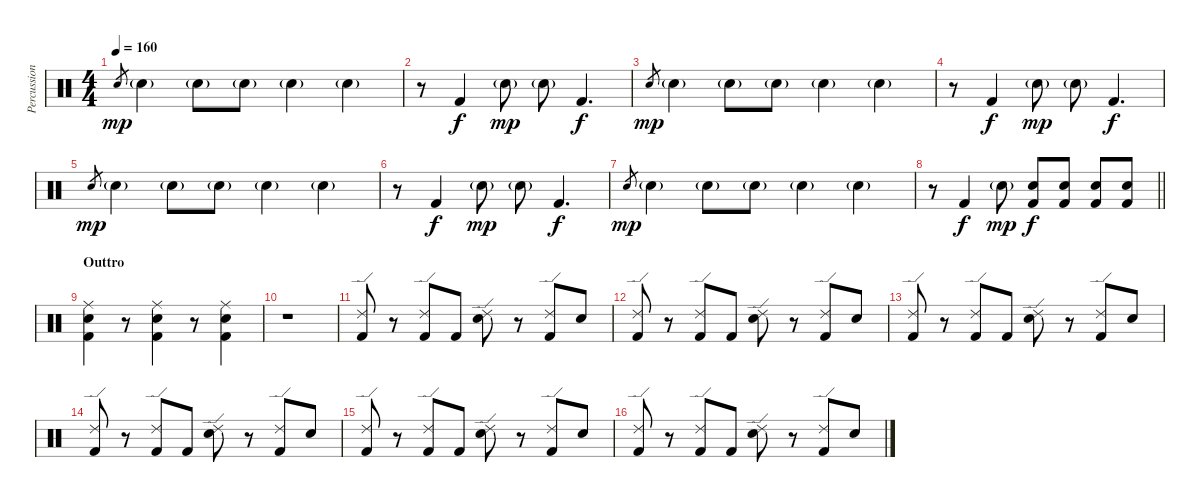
\track ("Percussion" "Percussion") {instrument percussion}
\staff {score}
\articulation defaults
\ts (4 4)
\tempo 160
\clef neutral
\ks c "Snare (hit) 2".8{gr dy mp} "Snare (hit) 2"{g}.4 "Snare (hit) 2"{g}.8 "Snare (hit) 2"{g}.8 "Snare (hit) 2"{g}.4 "Snare (hit) 2"{g}.4
|
r.8 "Kick (hit) 2".4{dy f} "Snare (hit) 2"{g}.8{dy mp} "Snare (hit) 2"{g}.8 "Kick (hit) 2".4{d dy f} |
"Snare (hit) 2".8{gr dy mp} "Snare (hit) 2"{g}.4 "Snare (hit) 2"{g}.8 "Snare (hit) 2"{g}.8 "Snare (hit) 2"{g}.4 "Snare (hit) 2"{g}.4 |
r.8 "Kick (hit) 2".4{dy f} "Snare (hit) 2"{g}.8{dy mp} "Snare (hit) 2"{g}.8 "Kick (hit) 2".4{d dy f} |
"Snare (hit) 2".8{gr dy mp} "Snare (hit) 2"{g}.4 "Snare (hit) 2"{g}.8 "Snare (hit) 2"{g}.8 "Snare (hit) 2"{g}.4 "Snare (hit) 2"{g}.4 |
r.8 "Kick (hit) 2".4{dy f} "Snare (hit) 2"{g}.8{dy mp} "Snare (hit) 2"{g}.8 "Kick (hit) 2".4{d dy f} |
"Snare (hit) 2".8{gr dy mp} "Snare (hit) 2"{g}.4 "Snare (hit) 2"{g}.8 "Snare (hit) 2"{g}.8 "Snare (hit) 2"{g}.4 "Snare (hit) 2"{g}.4 |
\barLineRight lightlight
r.8 "Kick (hit) 2".4{dy f} "Snare (hit) 2"{g}.8{dy mp} ("Snare (hit) 2" "Kick (hit) 2").8{dy f} ("Snare (hit) 2" "Kick (hit) 2").8 ("Snare (hit) 2" "Kick (hit) 2").8 ("Snare (hit) 2" "Kick (hit) 2").8 |
\section ("" "Outtro")
("Ride (middle)" "Snare (hit) 2" "Kick (hit) 2").4 r.8 ("Ride (middle)" "Snare (hit) 2" "Kick (hit) 2").4 r.8 ("Ride (middle)" "Snare (hit) 2" "Kick (hit) 2").4 |
r.1 |
("Ride (edge) 2" "Kick (hit) 2").8 r.8 ("Ride (edge) 2" "Kick (hit) 2").8 "Kick (hit) 2".8 ("Ride (edge) 2" "Snare (hit) 2").8 r.8 ("Ride (edge) 2" "Kick (hit) 2").8 "Snare (hit) 2".8 |
("Ride (edge) 2" "Kick (hit) 2").8 r.8 ("Ride (edge) 2" "Kick (hit) 2").8 "Kick (hit) 2".8 ("Ride (edge) 2" "Snare (hit) 2").8 r.8 ("Ride (edge) 2" "Kick (hit) 2").8 "Snare (hit) 2".8 |
("Ride (edge) 2" "Kick (hit) 2").8 r.8 ("Ride (edge) 2" "Kick (hit) 2").8 "Kick (hit) 2".8 ("Ride (edge) 2" "Snare (hit) 2").8 r.8 ("Ride (edge) 2" "Kick (hit) 2").8 "Snare (hit) 2".8 |
("Ride (edge) 2" "Kick (hit) 2").8 r.8 ("Ride (edge) 2" "Kick (hit) 2").8 "Kick (hit) 2".8 ("Ride (edge) 2" "Snare (hit) 2").8 r.8 ("Ride (edge) 2" "Kick (hit) 2").8 "Snare (hit) 2".8 |
("Ride (edge) 2" "Kick (hit) 2").8 r.8 ("Ride (edge) 2" "Kick (hit) 2").8 "Kick (hit) 2".8 ("Ride (edge) 2" "Snare (hit) 2").8 r.8 ("Ride (edge) 2" "Kick (hit) 2").8 "Snare (hit) 2".8 |
("Ride (edge) 2" "Kick (hit) 2").8 r.8 ("Ride (edge) 2" "Kick (hit) 2").8 "Kick (hit) 2".8 ("Ride (edge) 2" "Snare (hit) 2").8 r.8 ("Ride (edge) 2" "Kick (hit) 2").8 "Snare (hit) 2".8
